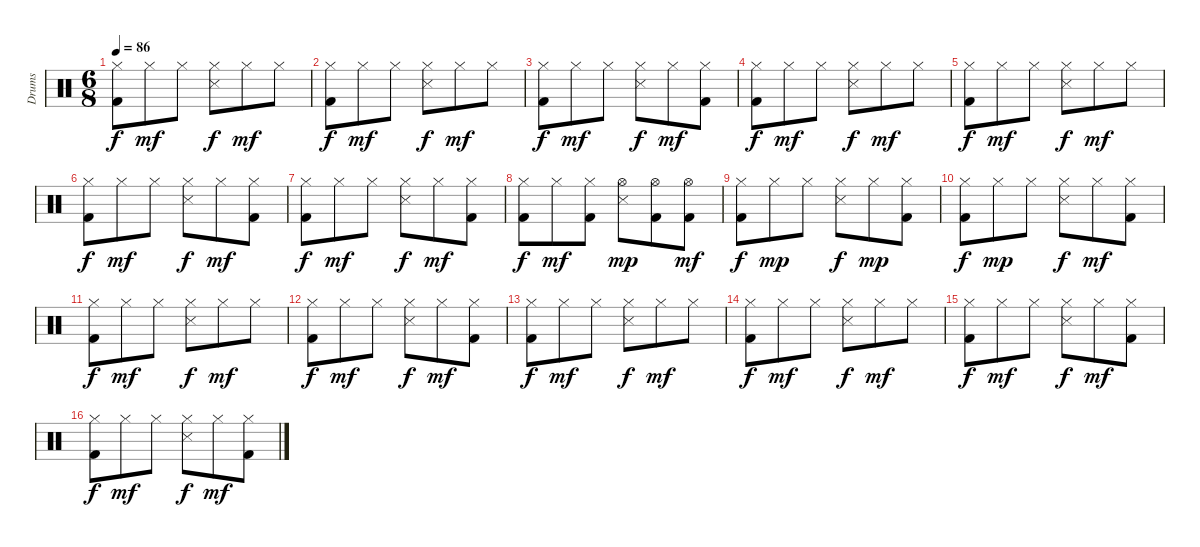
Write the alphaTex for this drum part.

\track ("Drums" "Drums") {instrument percussion}
\staff {score}
\articulation defaults
\ts (6 8)
\tempo 86
\clef neutral
\ks c
("Hi-Hat (closed)" "Kick (hit) 2").8{dy f} "Hi-Hat (closed)".8{dy mf} "Hi-Hat (closed)".8 ("Hi-Hat (closed)" "Snare (side stick) 3").8{dy f} "Hi-Hat (closed)".8{dy mf} "Hi-Hat (closed)".8 |
("Hi-Hat (closed)" "Kick (hit) 2").8{dy f} "Hi-Hat (closed)".8{dy mf} "Hi-Hat (closed)".8 ("Hi-Hat (closed)" "Snare (side stick) 3").8{dy f} "Hi-Hat (closed)".8{dy mf} "Hi-Hat (closed)".8 |
("Hi-Hat (closed)" "Kick (hit) 2").8{dy f} "Hi-Hat (closed)".8{dy mf} "Hi-Hat (closed)".8 ("Hi-Hat (closed)" "Snare (side stick) 3").8{dy f} "Hi-Hat (closed)".8{dy mf} ("Hi-Hat (closed)" "Kick (hit) 2").8 |
("Hi-Hat (closed)" "Kick (hit) 2").8{dy f} "Hi-Hat (closed)".8{dy mf} "Hi-Hat (closed)".8 ("Hi-Hat (closed)" "Snare (side stick) 3").8{dy f} "Hi-Hat (closed)".8{dy mf} "Hi-Hat (closed)".8 |
("Hi-Hat (closed)" "Kick (hit) 2").8{dy f} "Hi-Hat (closed)".8{dy mf} "Hi-Hat (closed)".8 ("Hi-Hat (closed)" "Snare (side stick) 3").8{dy f} "Hi-Hat (closed)".8{dy mf} "Hi-Hat (closed)".8 |
("Hi-Hat (closed)" "Kick (hit) 2").8{dy f} "Hi-Hat (closed)".8{dy mf} "Hi-Hat (closed)".8 ("Hi-Hat (closed)" "Snare (side stick) 3").8{dy f} "Hi-Hat (closed)".8{dy mf} ("Hi-Hat (closed)" "Kick (hit) 2").8 |
("Hi-Hat (closed)" "Kick (hit) 2").8{dy f} "Hi-Hat (closed)".8{dy mf} "Hi-Hat (closed)".8 ("Hi-Hat (closed)" "Snare (side stick) 3").8{dy f} "Hi-Hat (closed)".8{dy mf} ("Hi-Hat (closed)" "Kick (hit) 2").8 |
("Hi-Hat (closed)" "Kick (hit) 2").8{dy f} "Hi-Hat (closed)".8{dy mf} ("Hi-Hat (closed)" "Kick (hit) 2").8 ("Hi-Hat (open)" "Snare (side stick) 3").8{dy mp} ("Hi-Hat (open)" "Kick (hit) 2").8 ("Hi-Hat (open)" "Kick (hit) 2").8{dy mf} |
("Hi-Hat (closed)" "Kick (hit) 2").8{dy f} "Hi-Hat (closed)".8{dy mp} "Hi-Hat (closed)".8 ("Hi-Hat (closed)" "Snare (side stick) 3").8{dy f} "Hi-Hat (closed)".8{dy mp} ("Hi-Hat (closed)" "Kick (hit) 2").8 |
("Hi-Hat (closed)" "Kick (hit) 2").8{dy f} "Hi-Hat (closed)".8{dy mp} "Hi-Hat (closed)".8 ("Hi-Hat (closed)" "Snare (side stick) 3").8{dy f} "Hi-Hat (closed)".8{dy mf} ("Hi-Hat (closed)" "Kick (hit) 2").8 |
("Hi-Hat (closed)" "Kick (hit) 2").8{dy f} "Hi-Hat (closed)".8{dy mf} "Hi-Hat (closed)".8 ("Hi-Hat (closed)" "Snare (side stick) 3").8{dy f} "Hi-Hat (closed)".8{dy mf} "Hi-Hat (closed)".8 |
("Hi-Hat (closed)" "Kick (hit) 2").8{dy f} "Hi-Hat (closed)".8{dy mf} "Hi-Hat (closed)".8 ("Hi-Hat (closed)" "Snare (side stick) 3").8{dy f} "Hi-Hat (closed)".8{dy mf} ("Hi-Hat (closed)" "Kick (hit) 2").8 |
("Hi-Hat (closed)" "Kick (hit) 2").8{dy f} "Hi-Hat (closed)".8{dy mf} "Hi-Hat (closed)".8 ("Hi-Hat (closed)" "Snare (side stick) 3").8{dy f} "Hi-Hat (closed)".8{dy mf} "Hi-Hat (closed)".8 |
("Hi-Hat (closed)" "Kick (hit) 2").8{dy f} "Hi-Hat (closed)".8{dy mf} "Hi-Hat (closed)".8 ("Hi-Hat (closed)" "Snare (side stick) 3").8{dy f} "Hi-Hat (closed)".8{dy mf} "Hi-Hat (closed)".8 |
("Hi-Hat (closed)" "Kick (hit) 2").8{dy f} "Hi-Hat (closed)".8{dy mf} "Hi-Hat (closed)".8 ("Hi-Hat (closed)" "Snare (side stick) 3").8{dy f} "Hi-Hat (closed)".8{dy mf} ("Hi-Hat (closed)" "Kick (hit) 2").8 |
("Hi-Hat (closed)" "Kick (hit) 2").8{dy f} "Hi-Hat (closed)".8{dy mf} "Hi-Hat (closed)".8 ("Hi-Hat (closed)" "Snare (side stick) 3").8{dy f} "Hi-Hat (closed)".8{dy mf} ("Hi-Hat (closed)" "Kick (hit) 2").8
